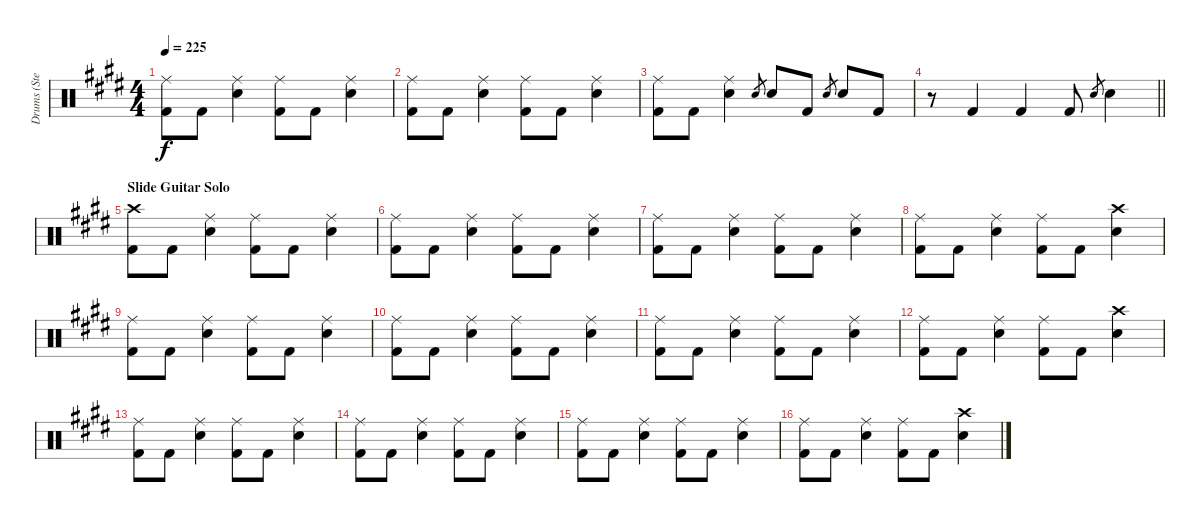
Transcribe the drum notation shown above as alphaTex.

\track ("Drums (Steven)" "Drums (Ste") {instrument percussion}
\staff {score}
\articulation defaults
\ts (4 4)
\tempo 225
\clef neutral
\ks e
("Ride (middle)" "Kick (hit) 2").8{dy f} "Kick (hit) 2".8 ("Ride (middle)" "Snare (hit) 2").4 ("Ride (middle)" "Kick (hit) 2").8 "Kick (hit) 2".8 ("Ride (middle)" "Snare (hit) 2").4 |
("Ride (middle)" "Kick (hit) 2").8 "Kick (hit) 2".8 ("Ride (middle)" "Snare (hit) 2").4 ("Ride (middle)" "Kick (hit) 2").8 "Kick (hit) 2".8 ("Ride (middle)" "Snare (hit) 2").4 |
("Ride (middle)" "Kick (hit) 2").8 "Kick (hit) 2".8 ("Ride (middle)" "Snare (hit) 2").4 "Snare (hit) 2".8{gr} "Snare (hit) 2".8 "Kick (hit) 2".8 "Snare (hit) 2".8{gr} "Snare (hit) 2".8 "Kick (hit) 2".8 |
\barLineRight lightlight
r.8 "Kick (hit) 2".4 "Kick (hit) 2".4 "Kick (hit) 2".8 "Snare (hit) 2".8{gr} "Snare (hit) 2".4 |
\section ("" "Slide Guitar Solo")
("Crash high (hit)" "Kick (hit) 2").8 "Kick (hit) 2".8 ("Ride (middle)" "Snare (hit) 2").4 ("Ride (middle)" "Kick (hit) 2").8 "Kick (hit) 2".8 ("Ride (middle)" "Snare (hit) 2").4 |
("Ride (middle)" "Kick (hit) 2").8 "Kick (hit) 2".8 ("Ride (middle)" "Snare (hit) 2").4 ("Ride (middle)" "Kick (hit) 2").8 "Kick (hit) 2".8 ("Ride (middle)" "Snare (hit) 2").4 |
("Ride (middle)" "Kick (hit) 2").8 "Kick (hit) 2".8 ("Ride (middle)" "Snare (hit) 2").4 ("Ride (middle)" "Kick (hit) 2").8 "Kick (hit) 2".8 ("Ride (middle)" "Snare (hit) 2").4 |
("Ride (middle)" "Kick (hit) 2").8 "Kick (hit) 2".8 ("Ride (middle)" "Snare (hit) 2").4 ("Ride (middle)" "Kick (hit) 2").8 "Kick (hit) 2".8 ("Crash high (hit)" "Snare (hit) 2").4 |
("Ride (middle)" "Kick (hit) 2").8 "Kick (hit) 2".8 ("Ride (middle)" "Snare (hit) 2").4 ("Ride (middle)" "Kick (hit) 2").8 "Kick (hit) 2".8 ("Ride (middle)" "Snare (hit) 2").4 |
("Ride (middle)" "Kick (hit) 2").8 "Kick (hit) 2".8 ("Ride (middle)" "Snare (hit) 2").4 ("Ride (middle)" "Kick (hit) 2").8 "Kick (hit) 2".8 ("Ride (middle)" "Snare (hit) 2").4 |
("Ride (middle)" "Kick (hit) 2").8 "Kick (hit) 2".8 ("Ride (middle)" "Snare (hit) 2").4 ("Ride (middle)" "Kick (hit) 2").8 "Kick (hit) 2".8 ("Ride (middle)" "Snare (hit) 2").4 |
("Ride (middle)" "Kick (hit) 2").8 "Kick (hit) 2".8 ("Ride (middle)" "Snare (hit) 2").4 ("Ride (middle)" "Kick (hit) 2").8 "Kick (hit) 2".8 ("Crash high (hit)" "Snare (hit) 2").4 |
("Ride (middle)" "Kick (hit) 2").8 "Kick (hit) 2".8 ("Ride (middle)" "Snare (hit) 2").4 ("Ride (middle)" "Kick (hit) 2").8 "Kick (hit) 2".8 ("Ride (middle)" "Snare (hit) 2").4 |
("Ride (middle)" "Kick (hit) 2").8 "Kick (hit) 2".8 ("Ride (middle)" "Snare (hit) 2").4 ("Ride (middle)" "Kick (hit) 2").8 "Kick (hit) 2".8 ("Ride (middle)" "Snare (hit) 2").4 |
("Ride (middle)" "Kick (hit) 2").8 "Kick (hit) 2".8 ("Ride (middle)" "Snare (hit) 2").4 ("Ride (middle)" "Kick (hit) 2").8 "Kick (hit) 2".8 ("Ride (middle)" "Snare (hit) 2").4 |
("Ride (middle)" "Kick (hit) 2").8 "Kick (hit) 2".8 ("Ride (middle)" "Snare (hit) 2").4 ("Ride (middle)" "Kick (hit) 2").8 "Kick (hit) 2".8 ("Crash high (hit)" "Snare (hit) 2").4
